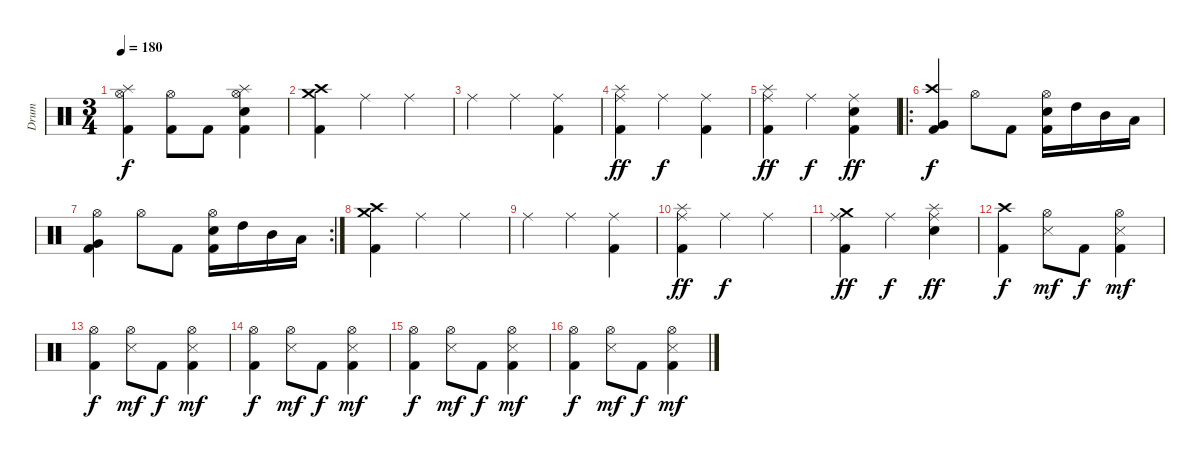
\track ("Drum" "Drum") {instrument percussion}
\staff {score}
\articulation defaults
\ts (3 4)
\tempo 180
\clef neutral
\ks c
("Splash (hit)" "Hi-Hat (open)" "Kick (hit) 2").4{dy f} ("Hi-Hat (open)" "Kick (hit) 2").8 "Kick (hit) 2".8 ("Splash (hit)" "Hi-Hat (open)" "Electric Snare (hit)" "Kick (hit) 2").4 |
("Crash high (hit)" "Crash medium (hit)" "Kick (hit) 2").4 "Ride (middle)".4 "Ride (middle)".4 |
"Ride (middle)".4 "Ride (middle)".4 ("Ride (middle)" "Kick (hit) 2").4 |
("Splash (hit)" "Ride (middle)" "Kick (hit) 2").4{dy ff} "Ride (middle)".4{dy f} ("Ride (middle)" "Kick (hit) 2").4 |
("Splash (hit)" "Ride (middle)" "Kick (hit) 2").4{dy ff} "Ride (middle)".4{dy f} ("Ride (middle)" "Electric Snare (hit)" "Kick (hit) 2").4{dy ff} |
\ro
("Crash high (hit)" "Very Low Tom (hit)" "Kick (hit) 2").4{dy f} "Hi-Hat (open)".8 "Kick (hit) 2".8 ("Hi-Hat (open)" "Electric Snare (hit)" "Kick (hit) 2").16 "High Tom (hit)".16 "Mid Tom (hit)".16 "Low Tom (hit)".16 |
\rc 2
("Hi-Hat (open)" "Very Low Tom (hit)" "Kick (hit) 2").4 "Hi-Hat (open)".8 "Kick (hit) 2".8 ("Hi-Hat (open)" "Electric Snare (hit)" "Kick (hit) 2").16 "High Tom (hit)".16 "Mid Tom (hit)".16 "Low Tom (hit)".16 |
("Crash high (hit)" "Crash medium (hit)" "Kick (hit) 2").4 "Ride (middle)".4 "Ride (middle)".4 |
"Ride (middle)".4 "Ride (middle)".4 ("Ride (middle)" "Kick (hit) 2").4 |
("Splash (hit)" "Ride (middle)" "Kick (hit) 2").4{dy ff} "Ride (middle)".4{dy f} "Ride (middle)".4 |
("Crash medium (hit)" "Ride (middle)" "Kick (hit) 2").4{dy ff} "Ride (middle)".4{dy f} ("Splash (hit)" "Ride (middle)" "Electric Snare (hit)").4{dy ff} |
("Crash high (hit)" "Kick (hit) 2").4{dy f} ("Hi-Hat (open)" "Snare (side stick) 3").8{dy mf} "Kick (hit) 2".8{dy f} ("Hi-Hat (open)" "Snare (side stick) 3" "Kick (hit) 2").4{dy mf} |
("Hi-Hat (open)" "Kick (hit) 2").4{dy f} ("Hi-Hat (open)" "Snare (side stick) 3").8{dy mf} "Kick (hit) 2".8{dy f} ("Hi-Hat (open)" "Snare (side stick) 3" "Kick (hit) 2").4{dy mf} |
("Hi-Hat (open)" "Kick (hit) 2").4{dy f} ("Hi-Hat (open)" "Snare (side stick) 3").8{dy mf} "Kick (hit) 2".8{dy f} ("Hi-Hat (open)" "Snare (side stick) 3" "Kick (hit) 2").4{dy mf} |
("Hi-Hat (open)" "Kick (hit) 2").4{dy f} ("Hi-Hat (open)" "Snare (side stick) 3").8{dy mf} "Kick (hit) 2".8{dy f} ("Hi-Hat (open)" "Snare (side stick) 3" "Kick (hit) 2").4{dy mf} |
("Hi-Hat (open)" "Kick (hit) 2").4{dy f} ("Hi-Hat (open)" "Snare (side stick) 3").8{dy mf} "Kick (hit) 2".8{dy f} ("Hi-Hat (open)" "Snare (side stick) 3" "Kick (hit) 2").4{dy mf}
